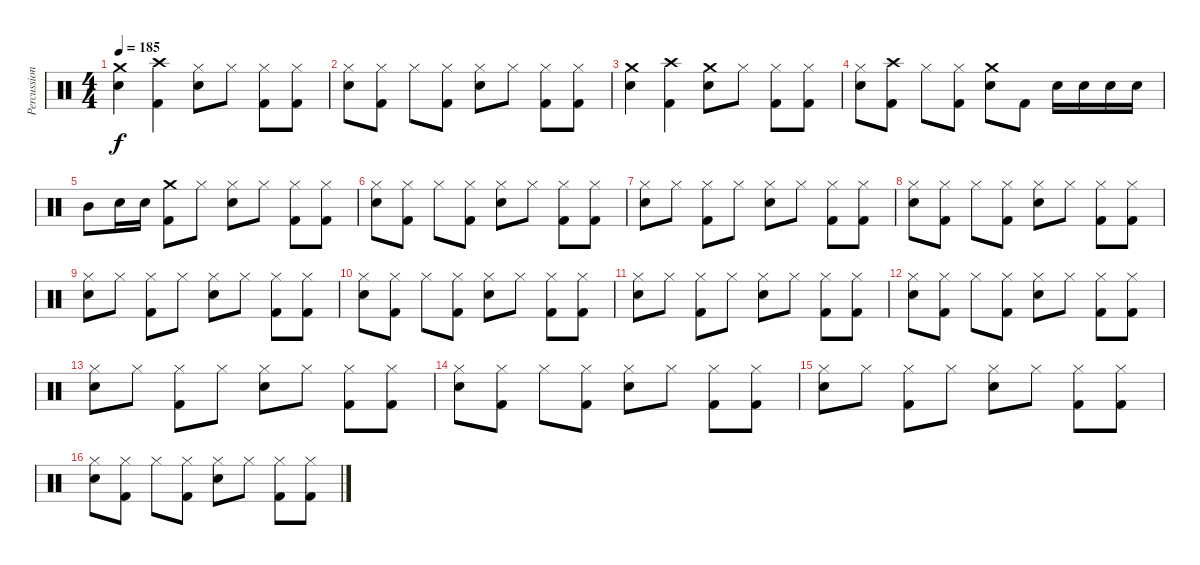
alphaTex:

\track ("Percussion" "Percussion") {instrument percussion}
\staff {score}
\articulation defaults
\ts (4 4)
\tempo 185
\clef neutral
\ks c
("Crash medium (hit)" "Electric Snare (hit)").4{dy f} ("Crash high (hit)" "Kick (hit) 2").4 ("Hi-Hat (closed)" "Electric Snare (hit)").8 "Hi-Hat (closed)".8 ("Hi-Hat (closed)" "Kick (hit) 2").8 ("Hi-Hat (closed)" "Kick (hit) 2").8 |
("Hi-Hat (closed)" "Electric Snare (hit)").8 ("Hi-Hat (closed)" "Kick (hit) 2").8 "Hi-Hat (closed)".8 ("Hi-Hat (closed)" "Kick (hit) 2").8 ("Hi-Hat (closed)" "Electric Snare (hit)").8 "Hi-Hat (closed)".8 ("Hi-Hat (closed)" "Kick (hit) 2").8 ("Hi-Hat (closed)" "Kick (hit) 2").8 |
("Crash medium (hit)" "Electric Snare (hit)").4 ("Crash high (hit)" "Kick (hit) 2").4 ("Crash medium (hit)" "Electric Snare (hit)").8 "Hi-Hat (closed)".8 ("Hi-Hat (closed)" "Kick (hit) 2").8 ("Hi-Hat (closed)" "Kick (hit) 2").8 |
("Hi-Hat (closed)" "Electric Snare (hit)").8 ("Crash high (hit)" "Kick (hit) 2").8 "Hi-Hat (closed)".8 ("Hi-Hat (closed)" "Kick (hit) 2").8 ("Crash medium (hit)" "Electric Snare (hit)").8 "Kick (hit) 2".8 "Electric Snare (hit)".16 "Electric Snare (hit)".16 "Electric Snare (hit)".16 "Electric Snare (hit)".16 |
"Mid Tom (hit)".8 "Electric Snare (hit)".16 "Electric Snare (hit)".16 ("Crash medium (hit)" "Kick (hit) 2").8 "Hi-Hat (closed)".8 ("Hi-Hat (closed)" "Electric Snare (hit)").8 "Hi-Hat (closed)".8 ("Hi-Hat (closed)" "Kick (hit) 2").8 ("Hi-Hat (closed)" "Kick (hit) 2").8 |
("Hi-Hat (closed)" "Electric Snare (hit)").8 ("Hi-Hat (closed)" "Kick (hit) 2").8 "Hi-Hat (closed)".8 ("Hi-Hat (closed)" "Kick (hit) 2").8 ("Hi-Hat (closed)" "Electric Snare (hit)").8 "Hi-Hat (closed)".8 ("Hi-Hat (closed)" "Kick (hit) 2").8 ("Hi-Hat (closed)" "Kick (hit) 2").8 |
("Hi-Hat (closed)" "Electric Snare (hit)").8 "Hi-Hat (closed)".8 ("Hi-Hat (closed)" "Kick (hit) 2").8 "Hi-Hat (closed)".8 ("Hi-Hat (closed)" "Electric Snare (hit)").8 "Hi-Hat (closed)".8 ("Hi-Hat (closed)" "Kick (hit) 2").8 ("Hi-Hat (closed)" "Kick (hit) 2").8 |
("Hi-Hat (closed)" "Electric Snare (hit)").8 ("Hi-Hat (closed)" "Kick (hit) 2").8 "Hi-Hat (closed)".8 ("Hi-Hat (closed)" "Kick (hit) 2").8 ("Hi-Hat (closed)" "Electric Snare (hit)").8 "Hi-Hat (closed)".8 ("Hi-Hat (closed)" "Kick (hit) 2").8 ("Hi-Hat (closed)" "Kick (hit) 2").8 |
("Hi-Hat (closed)" "Electric Snare (hit)").8 "Hi-Hat (closed)".8 ("Hi-Hat (closed)" "Kick (hit) 2").8 "Hi-Hat (closed)".8 ("Hi-Hat (closed)" "Electric Snare (hit)").8 "Hi-Hat (closed)".8 ("Hi-Hat (closed)" "Kick (hit) 2").8 ("Hi-Hat (closed)" "Kick (hit) 2").8 |
("Hi-Hat (closed)" "Electric Snare (hit)").8 ("Hi-Hat (closed)" "Kick (hit) 2").8 "Hi-Hat (closed)".8 ("Hi-Hat (closed)" "Kick (hit) 2").8 ("Hi-Hat (closed)" "Electric Snare (hit)").8 "Hi-Hat (closed)".8 ("Hi-Hat (closed)" "Kick (hit) 2").8 ("Hi-Hat (closed)" "Kick (hit) 2").8 |
("Hi-Hat (closed)" "Electric Snare (hit)").8 "Hi-Hat (closed)".8 ("Hi-Hat (closed)" "Kick (hit) 2").8 "Hi-Hat (closed)".8 ("Hi-Hat (closed)" "Electric Snare (hit)").8 "Hi-Hat (closed)".8 ("Hi-Hat (closed)" "Kick (hit) 2").8 ("Hi-Hat (closed)" "Kick (hit) 2").8 |
("Hi-Hat (closed)" "Electric Snare (hit)").8 ("Hi-Hat (closed)" "Kick (hit) 2").8 "Hi-Hat (closed)".8 ("Hi-Hat (closed)" "Kick (hit) 2").8 ("Hi-Hat (closed)" "Electric Snare (hit)").8 "Hi-Hat (closed)".8 ("Hi-Hat (closed)" "Kick (hit) 2").8 ("Hi-Hat (closed)" "Kick (hit) 2").8 |
("Hi-Hat (closed)" "Electric Snare (hit)").8 "Hi-Hat (closed)".8 ("Hi-Hat (closed)" "Kick (hit) 2").8 "Hi-Hat (closed)".8 ("Hi-Hat (closed)" "Electric Snare (hit)").8 "Hi-Hat (closed)".8 ("Hi-Hat (closed)" "Kick (hit) 2").8 ("Hi-Hat (closed)" "Kick (hit) 2").8 |
("Hi-Hat (closed)" "Electric Snare (hit)").8 ("Hi-Hat (closed)" "Kick (hit) 2").8 "Hi-Hat (closed)".8 ("Hi-Hat (closed)" "Kick (hit) 2").8 ("Hi-Hat (closed)" "Electric Snare (hit)").8 "Hi-Hat (closed)".8 ("Hi-Hat (closed)" "Kick (hit) 2").8 ("Hi-Hat (closed)" "Kick (hit) 2").8 |
("Hi-Hat (closed)" "Electric Snare (hit)").8 "Hi-Hat (closed)".8 ("Hi-Hat (closed)" "Kick (hit) 2").8 "Hi-Hat (closed)".8 ("Hi-Hat (closed)" "Electric Snare (hit)").8 "Hi-Hat (closed)".8 ("Hi-Hat (closed)" "Kick (hit) 2").8 ("Hi-Hat (closed)" "Kick (hit) 2").8 |
("Hi-Hat (closed)" "Electric Snare (hit)").8 ("Hi-Hat (closed)" "Kick (hit) 2").8 "Hi-Hat (closed)".8 ("Hi-Hat (closed)" "Kick (hit) 2").8 ("Hi-Hat (closed)" "Electric Snare (hit)").8 "Hi-Hat (closed)".8 ("Hi-Hat (closed)" "Kick (hit) 2").8 ("Hi-Hat (closed)" "Kick (hit) 2").8
